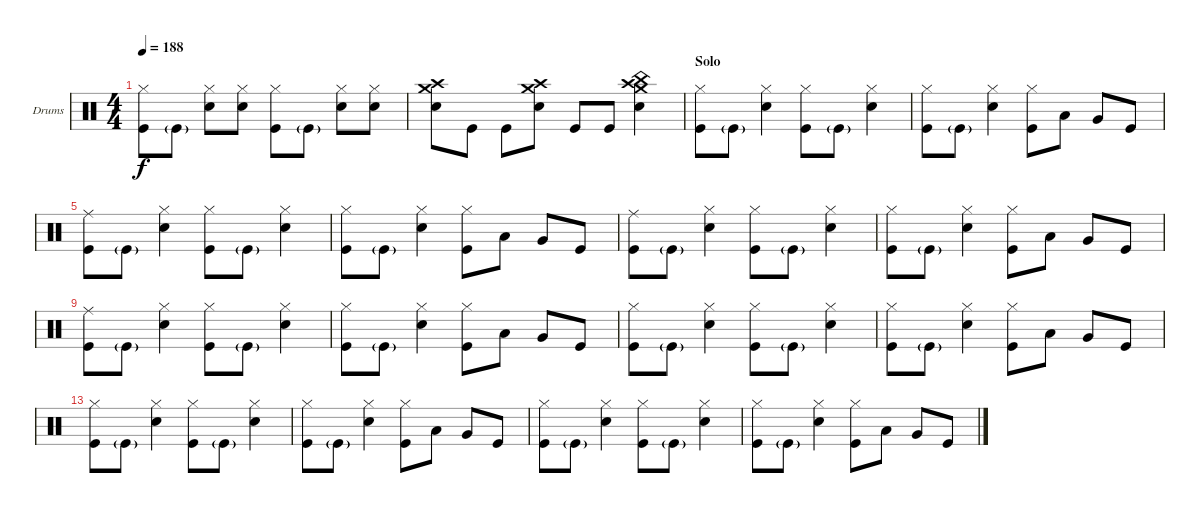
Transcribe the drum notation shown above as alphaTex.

\bracketExtendMode nobrackets
\firstSystemTrackNameOrientation horizontal
\otherSystemsTrackNameOrientation horizontal
\defaultBarNumberDisplay FirstOfSystem
\track ("Drumkit" "Drums") {instrument percussion}
\staff {score}
\articulation defaults
\ts (4 4)
\tempo 188
\clef neutral
\ks c
("Hi-Hat (closed)" "Kick (hit)").8{dy f} "Kick (hit)"{g}.8 ("Hi-Hat (closed)" "Snare (hit) 2").8 ("Snare (hit) 2" "Hi-Hat (closed)").8 ("Hi-Hat (closed)" "Kick (hit)").8 "Kick (hit)"{g}.8 ("Hi-Hat (closed)" "Snare (hit) 2").8 ("Snare (hit) 2" "Hi-Hat (closed)").8 |
("Crash high (hit)" "Snare (hit) 2" "Crash medium (hit)").8 "Kick (hit)".8 "Kick (hit)".8 ("Crash high (hit)" "Snare (hit) 2" "Crash medium (hit)").8 "Kick (hit)".8 "Kick (hit)".8 ("Crash high (hit)" "Snare (hit) 2" "Crash medium (hit)" "China (hit)").4 |
\section ("" "Solo")
("Hi-Hat (closed)" "Kick (hit)").8 "Kick (hit)"{g}.8 ("Hi-Hat (closed)" "Snare (hit) 2").4 ("Hi-Hat (closed)" "Kick (hit)").8 "Kick (hit)"{g}.8 ("Hi-Hat (closed)" "Snare (hit) 2").4 |
("Hi-Hat (closed)" "Kick (hit)").8 "Kick (hit)"{g}.8 ("Hi-Hat (closed)" "Snare (hit) 2").4 ("Hi-Hat (closed)" "Kick (hit)").8 "Low Tom (hit)".8 "Very Low Tom (hit)".8 "Kick (hit)".8 |
("Kick (hit)" "Ride (middle)").8 "Kick (hit)"{g}.8 ("Hi-Hat (closed)" "Snare (hit) 2").4 ("Hi-Hat (closed)" "Kick (hit)").8 "Kick (hit)"{g}.8 ("Hi-Hat (closed)" "Snare (hit) 2").4 |
("Hi-Hat (closed)" "Kick (hit)").8 "Kick (hit)"{g}.8 ("Hi-Hat (closed)" "Snare (hit) 2").4 ("Hi-Hat (closed)" "Kick (hit)").8 "Low Tom (hit)".8 "Very Low Tom (hit)".8 "Kick (hit)".8 |
("Kick (hit)" "Ride (middle)").8 "Kick (hit)"{g}.8 ("Hi-Hat (closed)" "Snare (hit) 2").4 ("Hi-Hat (closed)" "Kick (hit)").8 "Kick (hit)"{g}.8 ("Hi-Hat (closed)" "Snare (hit) 2").4 |
("Hi-Hat (closed)" "Kick (hit)").8 "Kick (hit)"{g}.8 ("Hi-Hat (closed)" "Snare (hit) 2").4 ("Hi-Hat (closed)" "Kick (hit)").8 "Low Tom (hit)".8 "Very Low Tom (hit)".8 "Kick (hit)".8 |
("Kick (hit)" "Ride (middle)").8 "Kick (hit)"{g}.8 ("Hi-Hat (closed)" "Snare (hit) 2").4 ("Hi-Hat (closed)" "Kick (hit)").8 "Kick (hit)"{g}.8 ("Hi-Hat (closed)" "Snare (hit) 2").4 |
("Hi-Hat (closed)" "Kick (hit)").8 "Kick (hit)"{g}.8 ("Hi-Hat (closed)" "Snare (hit) 2").4 ("Hi-Hat (closed)" "Kick (hit)").8 "Low Tom (hit)".8 "Very Low Tom (hit)".8 "Kick (hit)".8 |
("Hi-Hat (closed)" "Kick (hit)").8 "Kick (hit)"{g}.8 ("Hi-Hat (closed)" "Snare (hit) 2").4 ("Hi-Hat (closed)" "Kick (hit)").8 "Kick (hit)"{g}.8 ("Hi-Hat (closed)" "Snare (hit) 2").4 |
("Hi-Hat (closed)" "Kick (hit)").8 "Kick (hit)"{g}.8 ("Hi-Hat (closed)" "Snare (hit) 2").4 ("Hi-Hat (closed)" "Kick (hit)").8 "Low Tom (hit)".8 "Very Low Tom (hit)".8 "Kick (hit)".8 |
("Kick (hit)" "Hi-Hat (closed)").8 "Kick (hit)"{g}.8 ("Hi-Hat (closed)" "Snare (hit) 2").4 ("Hi-Hat (closed)" "Kick (hit)").8 "Kick (hit)"{g}.8 ("Hi-Hat (closed)" "Snare (hit) 2").4 |
("Hi-Hat (closed)" "Kick (hit)").8 "Kick (hit)"{g}.8 ("Hi-Hat (closed)" "Snare (hit) 2").4 ("Hi-Hat (closed)" "Kick (hit)").8 "Low Tom (hit)".8 "Very Low Tom (hit)".8 "Kick (hit)".8 |
("Hi-Hat (closed)" "Kick (hit)").8 "Kick (hit)"{g}.8 ("Hi-Hat (closed)" "Snare (hit) 2").4 ("Hi-Hat (closed)" "Kick (hit)").8 "Kick (hit)"{g}.8 ("Hi-Hat (closed)" "Snare (hit) 2").4 |
("Hi-Hat (closed)" "Kick (hit)").8 "Kick (hit)"{g}.8 ("Hi-Hat (closed)" "Snare (hit) 2").4 ("Hi-Hat (closed)" "Kick (hit)").8 "Low Tom (hit)".8 "Very Low Tom (hit)".8 "Kick (hit)".8
